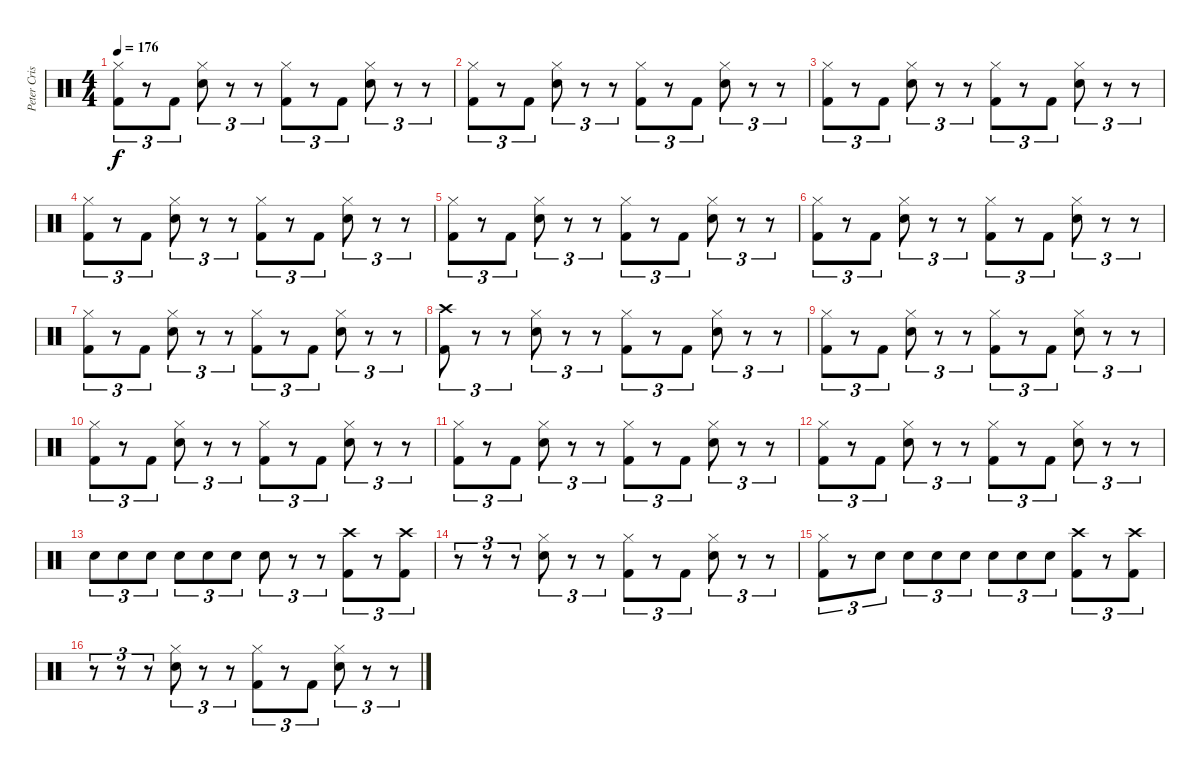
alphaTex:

\track ("Peter Criss" "Peter Cris") {instrument percussion}
\staff {score}
\articulation defaults
\ts (4 4)
\tempo 176
\clef neutral
\ks c
("Hi-Hat (closed)" "Kick (hit) 2").8{tu (3 2) dy f} r.8{tu (3 2)} "Kick (hit) 2".8{tu (3 2)} ("Hi-Hat (closed)" "Electric Snare (hit)").8{tu (3 2)} r.8{tu (3 2)} r.8{tu (3 2)} ("Hi-Hat (closed)" "Kick (hit) 2").8{tu (3 2)} r.8{tu (3 2)} "Kick (hit) 2".8{tu (3 2)} ("Hi-Hat (closed)" "Electric Snare (hit)").8{tu (3 2)} r.8{tu (3 2)} r.8{tu (3 2)} |
("Hi-Hat (closed)" "Kick (hit) 2").8{tu (3 2)} r.8{tu (3 2)} "Kick (hit) 2".8{tu (3 2)} ("Hi-Hat (closed)" "Electric Snare (hit)").8{tu (3 2)} r.8{tu (3 2)} r.8{tu (3 2)} ("Hi-Hat (closed)" "Kick (hit) 2").8{tu (3 2)} r.8{tu (3 2)} "Kick (hit) 2".8{tu (3 2)} ("Hi-Hat (closed)" "Electric Snare (hit)").8{tu (3 2)} r.8{tu (3 2)} r.8{tu (3 2)} |
("Hi-Hat (closed)" "Kick (hit) 2").8{tu (3 2)} r.8{tu (3 2)} "Kick (hit) 2".8{tu (3 2)} ("Hi-Hat (closed)" "Electric Snare (hit)").8{tu (3 2)} r.8{tu (3 2)} r.8{tu (3 2)} ("Hi-Hat (closed)" "Kick (hit) 2").8{tu (3 2)} r.8{tu (3 2)} "Kick (hit) 2".8{tu (3 2)} ("Hi-Hat (closed)" "Electric Snare (hit)").8{tu (3 2)} r.8{tu (3 2)} r.8{tu (3 2)} |
("Hi-Hat (closed)" "Kick (hit) 2").8{tu (3 2)} r.8{tu (3 2)} "Kick (hit) 2".8{tu (3 2)} ("Hi-Hat (closed)" "Electric Snare (hit)").8{tu (3 2)} r.8{tu (3 2)} r.8{tu (3 2)} ("Hi-Hat (closed)" "Kick (hit) 2").8{tu (3 2)} r.8{tu (3 2)} "Kick (hit) 2".8{tu (3 2)} ("Hi-Hat (closed)" "Electric Snare (hit)").8{tu (3 2)} r.8{tu (3 2)} r.8{tu (3 2)} |
("Hi-Hat (closed)" "Kick (hit) 2").8{tu (3 2)} r.8{tu (3 2)} "Kick (hit) 2".8{tu (3 2)} ("Hi-Hat (closed)" "Electric Snare (hit)").8{tu (3 2)} r.8{tu (3 2)} r.8{tu (3 2)} ("Hi-Hat (closed)" "Kick (hit) 2").8{tu (3 2)} r.8{tu (3 2)} "Kick (hit) 2".8{tu (3 2)} ("Hi-Hat (closed)" "Electric Snare (hit)").8{tu (3 2)} r.8{tu (3 2)} r.8{tu (3 2)} |
("Hi-Hat (closed)" "Kick (hit) 2").8{tu (3 2)} r.8{tu (3 2)} "Kick (hit) 2".8{tu (3 2)} ("Hi-Hat (closed)" "Electric Snare (hit)").8{tu (3 2)} r.8{tu (3 2)} r.8{tu (3 2)} ("Hi-Hat (closed)" "Kick (hit) 2").8{tu (3 2)} r.8{tu (3 2)} "Kick (hit) 2".8{tu (3 2)} ("Hi-Hat (closed)" "Electric Snare (hit)").8{tu (3 2)} r.8{tu (3 2)} r.8{tu (3 2)} |
("Hi-Hat (closed)" "Kick (hit) 2").8{tu (3 2)} r.8{tu (3 2)} "Kick (hit) 2".8{tu (3 2)} ("Hi-Hat (closed)" "Electric Snare (hit)").8{tu (3 2)} r.8{tu (3 2)} r.8{tu (3 2)} ("Hi-Hat (closed)" "Kick (hit) 2").8{tu (3 2)} r.8{tu (3 2)} "Kick (hit) 2".8{tu (3 2)} ("Hi-Hat (closed)" "Electric Snare (hit)").8{tu (3 2)} r.8{tu (3 2)} r.8{tu (3 2)} |
("Crash high (hit)" "Kick (hit) 2").8{tu (3 2)} r.8{tu (3 2)} r.8{tu (3 2)} ("Hi-Hat (closed)" "Electric Snare (hit)").8{tu (3 2)} r.8{tu (3 2)} r.8{tu (3 2)} ("Hi-Hat (closed)" "Kick (hit) 2").8{tu (3 2)} r.8{tu (3 2)} "Kick (hit) 2".8{tu (3 2)} ("Hi-Hat (closed)" "Electric Snare (hit)").8{tu (3 2)} r.8{tu (3 2)} r.8{tu (3 2)} |
("Hi-Hat (closed)" "Kick (hit) 2").8{tu (3 2)} r.8{tu (3 2)} "Kick (hit) 2".8{tu (3 2)} ("Hi-Hat (closed)" "Electric Snare (hit)").8{tu (3 2)} r.8{tu (3 2)} r.8{tu (3 2)} ("Hi-Hat (closed)" "Kick (hit) 2").8{tu (3 2)} r.8{tu (3 2)} "Kick (hit) 2".8{tu (3 2)} ("Hi-Hat (closed)" "Electric Snare (hit)").8{tu (3 2)} r.8{tu (3 2)} r.8{tu (3 2)} |
("Hi-Hat (closed)" "Kick (hit) 2").8{tu (3 2)} r.8{tu (3 2)} "Kick (hit) 2".8{tu (3 2)} ("Hi-Hat (closed)" "Electric Snare (hit)").8{tu (3 2)} r.8{tu (3 2)} r.8{tu (3 2)} ("Hi-Hat (closed)" "Kick (hit) 2").8{tu (3 2)} r.8{tu (3 2)} "Kick (hit) 2".8{tu (3 2)} ("Hi-Hat (closed)" "Electric Snare (hit)").8{tu (3 2)} r.8{tu (3 2)} r.8{tu (3 2)} |
("Hi-Hat (closed)" "Kick (hit) 2").8{tu (3 2)} r.8{tu (3 2)} "Kick (hit) 2".8{tu (3 2)} ("Hi-Hat (closed)" "Electric Snare (hit)").8{tu (3 2)} r.8{tu (3 2)} r.8{tu (3 2)} ("Hi-Hat (closed)" "Kick (hit) 2").8{tu (3 2)} r.8{tu (3 2)} "Kick (hit) 2".8{tu (3 2)} ("Hi-Hat (closed)" "Electric Snare (hit)").8{tu (3 2)} r.8{tu (3 2)} r.8{tu (3 2)} |
("Hi-Hat (closed)" "Kick (hit) 2").8{tu (3 2)} r.8{tu (3 2)} "Kick (hit) 2".8{tu (3 2)} ("Hi-Hat (closed)" "Electric Snare (hit)").8{tu (3 2)} r.8{tu (3 2)} r.8{tu (3 2)} ("Hi-Hat (closed)" "Kick (hit) 2").8{tu (3 2)} r.8{tu (3 2)} "Kick (hit) 2".8{tu (3 2)} ("Hi-Hat (closed)" "Electric Snare (hit)").8{tu (3 2)} r.8{tu (3 2)} r.8{tu (3 2)} |
"Electric Snare (hit)".8{tu (3 2)} "Electric Snare (hit)".8{tu (3 2)} "Electric Snare (hit)".8{tu (3 2)} "Electric Snare (hit)".8{tu (3 2)} "Electric Snare (hit)".8{tu (3 2)} "Electric Snare (hit)".8{tu (3 2)} "Electric Snare (hit)".8{tu (3 2)} r.8{tu (3 2)} r.8{tu (3 2)} ("Crash high (hit)" "Kick (hit) 2").8{tu (3 2)} r.8{tu (3 2)} ("Crash high (hit)" "Kick (hit) 2").8{tu (3 2)} |
r.8{tu (3 2)} r.8{tu (3 2)} r.8{tu (3 2)} ("Hi-Hat (closed)" "Electric Snare (hit)").8{tu (3 2)} r.8{tu (3 2)} r.8{tu (3 2)} ("Hi-Hat (closed)" "Kick (hit) 2").8{tu (3 2)} r.8{tu (3 2)} "Kick (hit) 2".8{tu (3 2)} ("Hi-Hat (closed)" "Electric Snare (hit)").8{tu (3 2)} r.8{tu (3 2)} r.8{tu (3 2)} |
("Hi-Hat (closed)" "Kick (hit) 2").8{tu (3 2)} r.8{tu (3 2)} "Electric Snare (hit)".8{tu (3 2)} "Electric Snare (hit)".8{tu (3 2)} "Electric Snare (hit)".8{tu (3 2)} "Electric Snare (hit)".8{tu (3 2)} "Electric Snare (hit)".8{tu (3 2)} "Electric Snare (hit)".8{tu (3 2)} "Electric Snare (hit)".8{tu (3 2)} ("Crash high (hit)" "Kick (hit) 2").8{tu (3 2)} r.8{tu (3 2)} ("Crash high (hit)" "Kick (hit) 2").8{tu (3 2)} |
r.8{tu (3 2)} r.8{tu (3 2)} r.8{tu (3 2)} ("Hi-Hat (closed)" "Electric Snare (hit)").8{tu (3 2)} r.8{tu (3 2)} r.8{tu (3 2)} ("Hi-Hat (closed)" "Kick (hit) 2").8{tu (3 2)} r.8{tu (3 2)} "Kick (hit) 2".8{tu (3 2)} ("Hi-Hat (closed)" "Electric Snare (hit)").8{tu (3 2)} r.8{tu (3 2)} r.8{tu (3 2)}
